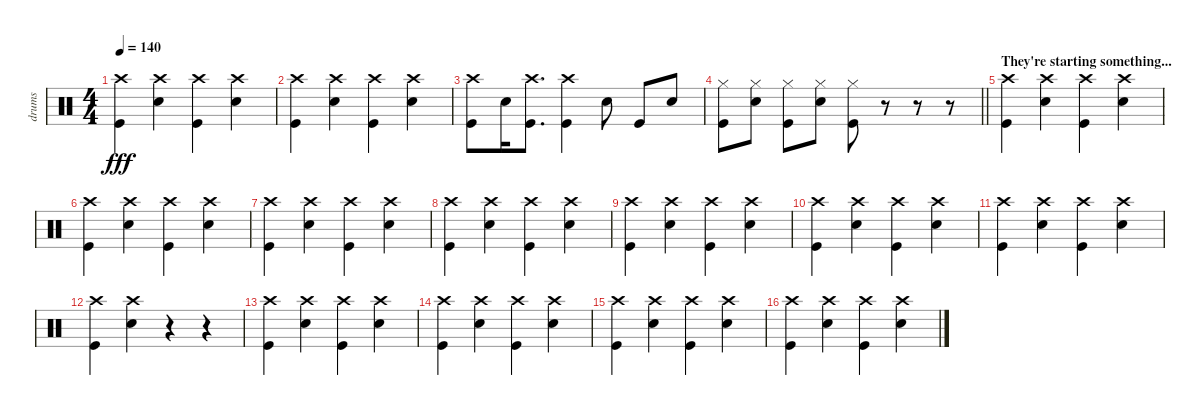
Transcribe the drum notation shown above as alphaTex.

\track ("drums" "drums") {instrument percussion}
\staff {score}
\articulation defaults
\ts (4 4)
\tempo 140
\clef neutral
\ks c
("Crash high (hit)" "Kick (hit)").4{dy fff} ("Crash high (hit)" "Snare (hit) 2").4 ("Crash high (hit)" "Kick (hit)").4 ("Crash high (hit)" "Snare (hit) 2").4 |
("Crash high (hit)" "Kick (hit)").4 ("Crash high (hit)" "Snare (hit) 2").4 ("Crash high (hit)" "Kick (hit)").4 ("Crash high (hit)" "Snare (hit) 2").4 |
("Crash high (hit)" "Kick (hit)").8 "Snare (hit) 2".16 ("Crash high (hit)" "Kick (hit)").8{d} ("Crash high (hit)" "Kick (hit)").4 "Snare (hit) 2".8 "Kick (hit)".8 "Snare (hit) 2".8 |
\barLineRight lightlight
("Hi-Hat (closed)" "Kick (hit)").8 ("Hi-Hat (closed)" "Snare (hit) 2").8 ("Hi-Hat (closed)" "Kick (hit)").8 ("Hi-Hat (closed)" "Snare (hit) 2").8 ("Hi-Hat (closed)" "Kick (hit)").8 r.8 r.8 r.8 |
\section ("" "They're starting something...")
("Crash high (hit)" "Kick (hit)").4 ("Crash high (hit)" "Snare (hit) 2").4 ("Crash high (hit)" "Kick (hit)").4 ("Crash high (hit)" "Snare (hit) 2").4 |
("Crash high (hit)" "Kick (hit)").4 ("Crash high (hit)" "Snare (hit) 2").4 ("Crash high (hit)" "Kick (hit)").4 ("Crash high (hit)" "Snare (hit) 2").4 |
("Crash high (hit)" "Kick (hit)").4 ("Crash high (hit)" "Snare (hit) 2").4 ("Crash high (hit)" "Kick (hit)").4 ("Crash high (hit)" "Snare (hit) 2").4 |
("Crash high (hit)" "Kick (hit)").4 ("Crash high (hit)" "Snare (hit) 2").4 ("Crash high (hit)" "Kick (hit)").4 ("Crash high (hit)" "Snare (hit) 2").4 |
("Crash high (hit)" "Kick (hit)").4 ("Crash high (hit)" "Snare (hit) 2").4 ("Crash high (hit)" "Kick (hit)").4 ("Crash high (hit)" "Snare (hit) 2").4 |
("Crash high (hit)" "Kick (hit)").4 ("Crash high (hit)" "Snare (hit) 2").4 ("Crash high (hit)" "Kick (hit)").4 ("Crash high (hit)" "Snare (hit) 2").4 |
("Crash high (hit)" "Kick (hit)").4 ("Crash high (hit)" "Snare (hit) 2").4 ("Crash high (hit)" "Kick (hit)").4 ("Crash high (hit)" "Snare (hit) 2").4 |
("Crash high (hit)" "Kick (hit)").4 ("Crash high (hit)" "Snare (hit) 2").4 r.4 r.4 |
("Crash high (hit)" "Kick (hit)").4 ("Crash high (hit)" "Snare (hit) 2").4 ("Crash high (hit)" "Kick (hit)").4 ("Crash high (hit)" "Snare (hit) 2").4 |
("Crash high (hit)" "Kick (hit)").4 ("Crash high (hit)" "Snare (hit) 2").4 ("Crash high (hit)" "Kick (hit)").4 ("Crash high (hit)" "Snare (hit) 2").4 |
("Crash high (hit)" "Kick (hit)").4 ("Crash high (hit)" "Snare (hit) 2").4 ("Crash high (hit)" "Kick (hit)").4 ("Crash high (hit)" "Snare (hit) 2").4 |
("Crash high (hit)" "Kick (hit)").4 ("Crash high (hit)" "Snare (hit) 2").4 ("Crash high (hit)" "Kick (hit)").4 ("Crash high (hit)" "Snare (hit) 2").4
